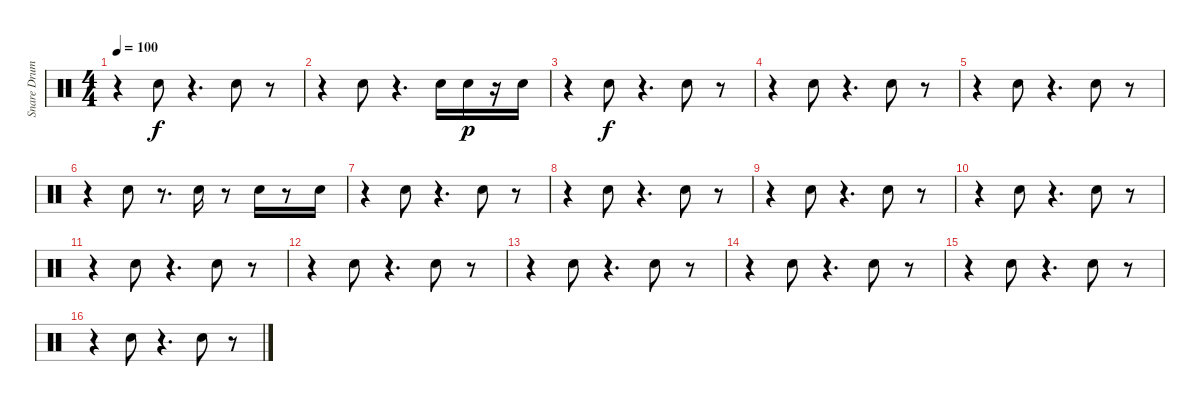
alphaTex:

\track ("Snare Drum" "Snare Drum") {instrument percussion}
\staff {score}
\articulation defaults
\ts (4 4)
\tempo 100
\clef neutral
\ks c
r.4{dy f} "Snare (hit) 2".8 r.4{d} "Snare (hit) 2".8 r.8 |
r.4 "Snare (hit) 2".8 r.4{d} "Snare (hit) 2".16 "Snare (hit) 2".16{dy p} r.16 "Snare (hit) 2".16 |
r.4 "Snare (hit) 2".8{dy f} r.4{d} "Snare (hit) 2".8 r.8 |
r.4 "Snare (hit) 2".8 r.4{d} "Snare (hit) 2".8 r.8 |
r.4 "Snare (hit) 2".8 r.4{d} "Snare (hit) 2".8 r.8 |
r.4 "Snare (hit) 2".8 r.8{d} "Snare (hit) 2".16 r.8 "Snare (hit) 2".16 r.8 "Snare (hit) 2".16 |
r.4 "Snare (hit) 2".8 r.4{d} "Snare (hit) 2".8 r.8 |
r.4 "Snare (hit) 2".8 r.4{d} "Snare (hit) 2".8 r.8 |
r.4 "Snare (hit) 2".8 r.4{d} "Snare (hit) 2".8 r.8 |
r.4 "Snare (hit) 2".8 r.4{d} "Snare (hit) 2".8 r.8 |
r.4 "Snare (hit) 2".8 r.4{d} "Snare (hit) 2".8 r.8 |
r.4 "Snare (hit) 2".8 r.4{d} "Snare (hit) 2".8 r.8 |
r.4 "Snare (hit) 2".8 r.4{d} "Snare (hit) 2".8 r.8 |
r.4 "Snare (hit) 2".8 r.4{d} "Snare (hit) 2".8 r.8 |
r.4 "Snare (hit) 2".8 r.4{d} "Snare (hit) 2".8 r.8 |
r.4 "Snare (hit) 2".8 r.4{d} "Snare (hit) 2".8 r.8
